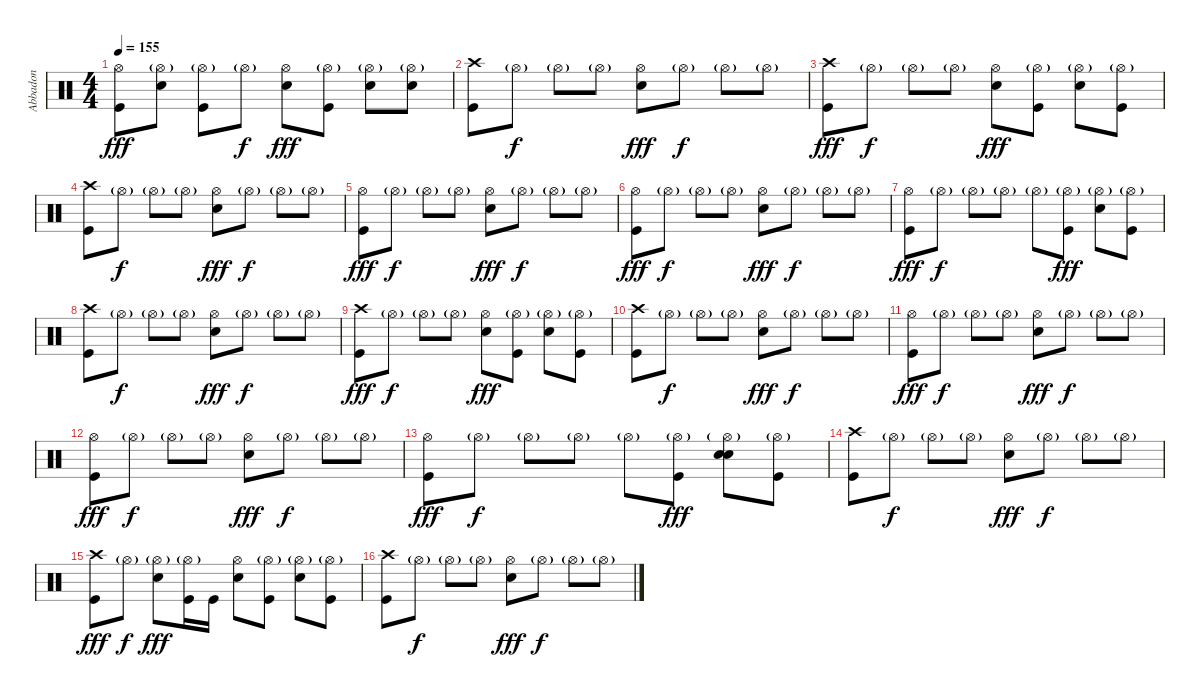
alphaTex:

\track ("Abbadon" "Abbadon") {instrument percussion}
\staff {score}
\articulation defaults
\ts (4 4)
\tempo 155
\clef neutral
\ks c
("Hi-Hat (open)" "Kick (hit)").8{dy fff} ("Hi-Hat (open)"{g} "Electric Snare (hit)").8 ("Hi-Hat (open)"{g} "Kick (hit)").8 "Hi-Hat (open)"{g}.8{dy f} ("Hi-Hat (open)" "Electric Snare (hit)").8{dy fff} ("Hi-Hat (open)"{g} "Kick (hit)").8 ("Hi-Hat (open)"{g} "Electric Snare (hit)").8 ("Hi-Hat (open)"{g} "Electric Snare (hit)").8 |
("Crash high (hit)" "Kick (hit)").8 "Hi-Hat (open)"{g}.8{dy f} "Hi-Hat (open)"{g}.8 "Hi-Hat (open)"{g}.8 ("Hi-Hat (open)" "Electric Snare (hit)").8{dy fff} "Hi-Hat (open)"{g}.8{dy f} "Hi-Hat (open)"{g}.8 "Hi-Hat (open)"{g}.8 |
("Crash high (hit)" "Kick (hit)").8{dy fff} "Hi-Hat (open)"{g}.8{dy f} "Hi-Hat (open)"{g}.8 "Hi-Hat (open)"{g}.8 ("Hi-Hat (open)" "Electric Snare (hit)").8{dy fff} ("Hi-Hat (open)"{g} "Kick (hit)").8 ("Hi-Hat (open)"{g} "Electric Snare (hit)").8 ("Hi-Hat (open)"{g} "Kick (hit)").8 |
("Crash high (hit)" "Kick (hit)").8 "Hi-Hat (open)"{g}.8{dy f} "Hi-Hat (open)"{g}.8 "Hi-Hat (open)"{g}.8 ("Hi-Hat (open)" "Electric Snare (hit)").8{dy fff} "Hi-Hat (open)"{g}.8{dy f} "Hi-Hat (open)"{g}.8 "Hi-Hat (open)"{g}.8 |
("Hi-Hat (open)" "Kick (hit)").8{dy fff} "Hi-Hat (open)"{g}.8{dy f} "Hi-Hat (open)"{g}.8 "Hi-Hat (open)"{g}.8 ("Hi-Hat (open)" "Electric Snare (hit)").8{dy fff} "Hi-Hat (open)"{g}.8{dy f} "Hi-Hat (open)"{g}.8 "Hi-Hat (open)"{g}.8 |
("Hi-Hat (open)" "Kick (hit)").8{dy fff} "Hi-Hat (open)"{g}.8{dy f} "Hi-Hat (open)"{g}.8 "Hi-Hat (open)"{g}.8 ("Hi-Hat (open)" "Electric Snare (hit)").8{dy fff} "Hi-Hat (open)"{g}.8{dy f} "Hi-Hat (open)"{g}.8 "Hi-Hat (open)"{g}.8 |
("Hi-Hat (open)" "Kick (hit)").8{dy fff} "Hi-Hat (open)"{g}.8{dy f} "Hi-Hat (open)"{g}.8 "Hi-Hat (open)"{g}.8 "Hi-Hat (open)"{g}.8 ("Hi-Hat (open)"{g} "Kick (hit)").8{dy fff} ("Hi-Hat (open)"{g} "Electric Snare (hit)").8 ("Hi-Hat (open)"{g} "Kick (hit)").8 |
("Crash high (hit)" "Kick (hit)").8 "Hi-Hat (open)"{g}.8{dy f} "Hi-Hat (open)"{g}.8 "Hi-Hat (open)"{g}.8 ("Hi-Hat (open)" "Electric Snare (hit)").8{dy fff} "Hi-Hat (open)"{g}.8{dy f} "Hi-Hat (open)"{g}.8 "Hi-Hat (open)"{g}.8 |
("Crash high (hit)" "Kick (hit)").8{dy fff} "Hi-Hat (open)"{g}.8{dy f} "Hi-Hat (open)"{g}.8 "Hi-Hat (open)"{g}.8 ("Hi-Hat (open)" "Electric Snare (hit)").8{dy fff} ("Hi-Hat (open)"{g} "Kick (hit)").8 ("Hi-Hat (open)"{g} "Electric Snare (hit)").8 ("Hi-Hat (open)"{g} "Kick (hit)").8 |
("Crash high (hit)" "Kick (hit)").8 "Hi-Hat (open)"{g}.8{dy f} "Hi-Hat (open)"{g}.8 "Hi-Hat (open)"{g}.8 ("Hi-Hat (open)" "Electric Snare (hit)").8{dy fff} "Hi-Hat (open)"{g}.8{dy f} "Hi-Hat (open)"{g}.8 "Hi-Hat (open)"{g}.8 |
("Hi-Hat (open)" "Kick (hit)").8{dy fff} "Hi-Hat (open)"{g}.8{dy f} "Hi-Hat (open)"{g}.8 "Hi-Hat (open)"{g}.8 ("Hi-Hat (open)" "Electric Snare (hit)").8{dy fff} "Hi-Hat (open)"{g}.8{dy f} "Hi-Hat (open)"{g}.8 "Hi-Hat (open)"{g}.8 |
("Hi-Hat (open)" "Kick (hit)").8{dy fff} "Hi-Hat (open)"{g}.8{dy f} "Hi-Hat (open)"{g}.8 "Hi-Hat (open)"{g}.8 ("Hi-Hat (open)" "Electric Snare (hit)").8{dy fff} "Hi-Hat (open)"{g}.8{dy f} "Hi-Hat (open)"{g}.8 "Hi-Hat (open)"{g}.8 |
("Hi-Hat (open)" "Kick (hit)").8{dy fff} "Hi-Hat (open)"{g}.8{dy f} "Hi-Hat (open)"{g}.8 "Hi-Hat (open)"{g}.8 "Hi-Hat (open)"{g}.8 ("Hi-Hat (open)"{g} "Kick (hit)").8{dy fff} ("Hi-Hat (open)"{g} "Electric Snare (hit)" "Electric Snare (hit)").8{bd 480} ("Hi-Hat (open)"{g} "Kick (hit)").8 |
("Crash high (hit)" "Kick (hit)").8 "Hi-Hat (open)"{g}.8{dy f} "Hi-Hat (open)"{g}.8 "Hi-Hat (open)"{g}.8 ("Hi-Hat (open)" "Electric Snare (hit)").8{dy fff} "Hi-Hat (open)"{g}.8{dy f} "Hi-Hat (open)"{g}.8 "Hi-Hat (open)"{g}.8 |
("Crash high (hit)" "Kick (hit)").8{dy fff} "Hi-Hat (open)"{g}.8{dy f} ("Hi-Hat (open)"{g} "Electric Snare (hit)").8{dy fff} ("Hi-Hat (open)"{g} "Kick (hit)").16 "Kick (hit)".16 ("Hi-Hat (open)" "Electric Snare (hit)").8 ("Hi-Hat (open)"{g} "Kick (hit)").8 ("Hi-Hat (open)"{g} "Electric Snare (hit)").8 ("Hi-Hat (open)"{g} "Kick (hit)").8 |
("Crash high (hit)" "Kick (hit)").8 "Hi-Hat (open)"{g}.8{dy f} "Hi-Hat (open)"{g}.8 "Hi-Hat (open)"{g}.8 ("Hi-Hat (open)" "Electric Snare (hit)").8{dy fff} "Hi-Hat (open)"{g}.8{dy f} "Hi-Hat (open)"{g}.8 "Hi-Hat (open)"{g}.8
